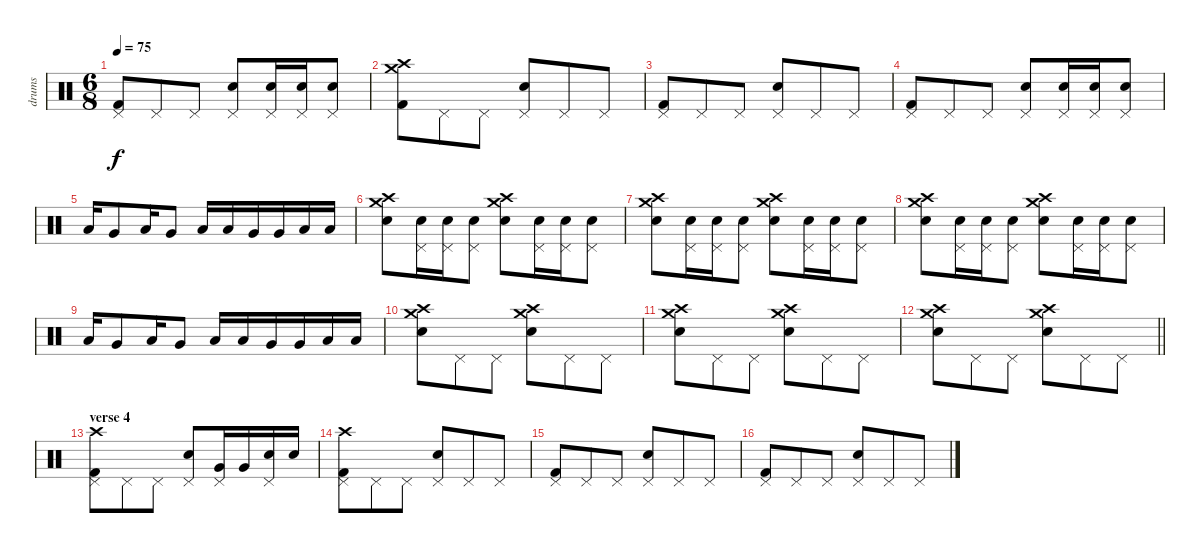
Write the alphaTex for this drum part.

\track ("drums" "drums") {instrument percussion}
\staff {score}
\articulation defaults
\ts (6 8)
\tempo 75
\clef neutral
\ks c
("Kick (hit) 2" "Pedal Hi-Hat (hit)").8{dy f} "Pedal Hi-Hat (hit)".8 "Pedal Hi-Hat (hit)".8 ("Electric Snare (hit)" "Pedal Hi-Hat (hit)").8 ("Electric Snare (hit)" "Pedal Hi-Hat (hit)").16 ("Electric Snare (hit)" "Pedal Hi-Hat (hit)").16 ("Electric Snare (hit)" "Pedal Hi-Hat (hit)").8 |
("Kick (hit) 2" "Crash medium (hit)" "Crash high (hit)").8 "Pedal Hi-Hat (hit)".8 "Pedal Hi-Hat (hit)".8 ("Electric Snare (hit)" "Pedal Hi-Hat (hit)").8 "Pedal Hi-Hat (hit)".8 "Pedal Hi-Hat (hit)".8 |
("Kick (hit) 2" "Pedal Hi-Hat (hit)").8 "Pedal Hi-Hat (hit)".8 "Pedal Hi-Hat (hit)".8 ("Electric Snare (hit)" "Pedal Hi-Hat (hit)").8 "Pedal Hi-Hat (hit)".8 "Pedal Hi-Hat (hit)".8 |
("Kick (hit) 2" "Pedal Hi-Hat (hit)").8 "Pedal Hi-Hat (hit)".8 "Pedal Hi-Hat (hit)".8 ("Electric Snare (hit)" "Pedal Hi-Hat (hit)").8 ("Electric Snare (hit)" "Pedal Hi-Hat (hit)").16 ("Electric Snare (hit)" "Pedal Hi-Hat (hit)").16 ("Electric Snare (hit)" "Pedal Hi-Hat (hit)").8 |
"Low Tom (hit)".16 "Very Low Tom (hit)".8 "Low Tom (hit)".16 "Very Low Tom (hit)".8 "Low Tom (hit)".16 "Low Tom (hit)".16 "Very Low Tom (hit)".16 "Very Low Tom (hit)".16 "Low Floor Tom (hit)".16 "Low Floor Tom (hit)".16 |
("Electric Snare (hit)" "Crash high (hit)" "Crash medium (hit)").8 ("Electric Snare (hit)" "Pedal Hi-Hat (hit)").16 ("Electric Snare (hit)" "Pedal Hi-Hat (hit)").16 ("Electric Snare (hit)" "Pedal Hi-Hat (hit)").8 ("Electric Snare (hit)" "Crash high (hit)" "Crash medium (hit)").8 ("Electric Snare (hit)" "Pedal Hi-Hat (hit)").16 ("Electric Snare (hit)" "Pedal Hi-Hat (hit)").16 ("Electric Snare (hit)" "Pedal Hi-Hat (hit)").8 |
("Electric Snare (hit)" "Crash high (hit)" "Crash medium (hit)").8 ("Electric Snare (hit)" "Pedal Hi-Hat (hit)").16 ("Electric Snare (hit)" "Pedal Hi-Hat (hit)").16 ("Electric Snare (hit)" "Pedal Hi-Hat (hit)").8 ("Electric Snare (hit)" "Crash high (hit)" "Crash medium (hit)").8 ("Electric Snare (hit)" "Pedal Hi-Hat (hit)").16 ("Electric Snare (hit)" "Pedal Hi-Hat (hit)").16 ("Electric Snare (hit)" "Pedal Hi-Hat (hit)").8 |
("Electric Snare (hit)" "Crash high (hit)" "Crash medium (hit)").8 ("Electric Snare (hit)" "Pedal Hi-Hat (hit)").16 ("Electric Snare (hit)" "Pedal Hi-Hat (hit)").16 ("Electric Snare (hit)" "Pedal Hi-Hat (hit)").8 ("Electric Snare (hit)" "Crash high (hit)" "Crash medium (hit)").8 ("Electric Snare (hit)" "Pedal Hi-Hat (hit)").16 ("Electric Snare (hit)" "Pedal Hi-Hat (hit)").16 ("Electric Snare (hit)" "Pedal Hi-Hat (hit)").8 |
"Low Tom (hit)".16 "Very Low Tom (hit)".8 "Low Tom (hit)".16 "Very Low Tom (hit)".8 "Low Tom (hit)".16 "Low Tom (hit)".16 "Very Low Tom (hit)".16 "Very Low Tom (hit)".16 "Low Floor Tom (hit)".16 "Low Floor Tom (hit)".16 |
("Electric Snare (hit)" "Crash high (hit)" "Crash medium (hit)").8 "Pedal Hi-Hat (hit)".8 "Pedal Hi-Hat (hit)".8 ("Electric Snare (hit)" "Crash high (hit)" "Crash medium (hit)").8 "Pedal Hi-Hat (hit)".8 "Pedal Hi-Hat (hit)".8 |
("Electric Snare (hit)" "Crash high (hit)" "Crash medium (hit)").8 "Pedal Hi-Hat (hit)".8 "Pedal Hi-Hat (hit)".8 ("Electric Snare (hit)" "Crash high (hit)" "Crash medium (hit)").8 "Pedal Hi-Hat (hit)".8 "Pedal Hi-Hat (hit)".8 |
\barLineRight lightlight
("Electric Snare (hit)" "Crash high (hit)" "Crash medium (hit)").8 "Pedal Hi-Hat (hit)".8 "Pedal Hi-Hat (hit)".8 ("Electric Snare (hit)" "Crash high (hit)" "Crash medium (hit)").8 "Pedal Hi-Hat (hit)".8 "Pedal Hi-Hat (hit)".8 |
\section ("" "verse 4")
("Kick (hit) 2" "Pedal Hi-Hat (hit)" "Crash high (hit)").8 "Pedal Hi-Hat (hit)".8 "Pedal Hi-Hat (hit)".8 ("Electric Snare (hit)" "Pedal Hi-Hat (hit)").8 ("Very Low Tom (hit)" "Pedal Hi-Hat (hit)").16 "Very Low Tom (hit)".16 ("Electric Snare (hit)" "Pedal Hi-Hat (hit)").16 "Electric Snare (hit)".16 |
("Kick (hit) 2" "Pedal Hi-Hat (hit)" "Crash high (hit)").8 "Pedal Hi-Hat (hit)".8 "Pedal Hi-Hat (hit)".8 ("Electric Snare (hit)" "Pedal Hi-Hat (hit)").8 "Pedal Hi-Hat (hit)".8 "Pedal Hi-Hat (hit)".8 |
("Kick (hit) 2" "Pedal Hi-Hat (hit)").8 "Pedal Hi-Hat (hit)".8 "Pedal Hi-Hat (hit)".8 ("Electric Snare (hit)" "Pedal Hi-Hat (hit)").8 "Pedal Hi-Hat (hit)".8 "Pedal Hi-Hat (hit)".8 |
("Kick (hit) 2" "Pedal Hi-Hat (hit)").8 "Pedal Hi-Hat (hit)".8 "Pedal Hi-Hat (hit)".8 ("Electric Snare (hit)" "Pedal Hi-Hat (hit)").8 "Pedal Hi-Hat (hit)".8 "Pedal Hi-Hat (hit)".8
